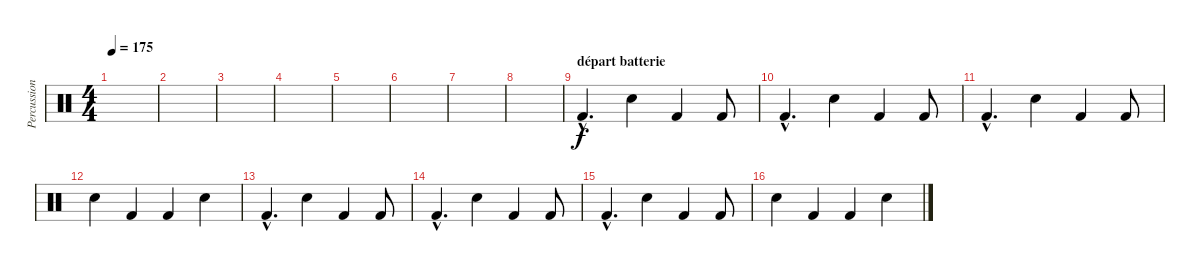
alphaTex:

\track ("Percussions" "Percussion") {instrument percussion}
\staff {score}
\articulation defaults
\ts (4 4)
\tempo 175
\clef neutral
\ks c
|
|
|
|
|
|
|
|
\section ("" "départ batterie")
"Kick (hit) 2"{hac}.4{d} "Snare (hit) 2".4 "Kick (hit) 2".4 "Kick (hit) 2".8 |
"Kick (hit) 2"{hac}.4{d} "Snare (hit) 2".4 "Kick (hit) 2".4 "Kick (hit) 2".8 |
"Kick (hit) 2"{hac}.4{d} "Snare (hit) 2".4 "Kick (hit) 2".4 "Kick (hit) 2".8 |
"Snare (hit) 2".4 "Kick (hit) 2".4 "Kick (hit) 2".4 "Snare (hit) 2".4 |
"Kick (hit) 2"{hac}.4{d} "Snare (hit) 2".4 "Kick (hit) 2".4 "Kick (hit) 2".8 |
"Kick (hit) 2"{hac}.4{d} "Snare (hit) 2".4 "Kick (hit) 2".4 "Kick (hit) 2".8 |
"Kick (hit) 2"{hac}.4{d} "Snare (hit) 2".4 "Kick (hit) 2".4 "Kick (hit) 2".8 |
"Snare (hit) 2".4 "Kick (hit) 2".4 "Kick (hit) 2".4 "Snare (hit) 2".4
